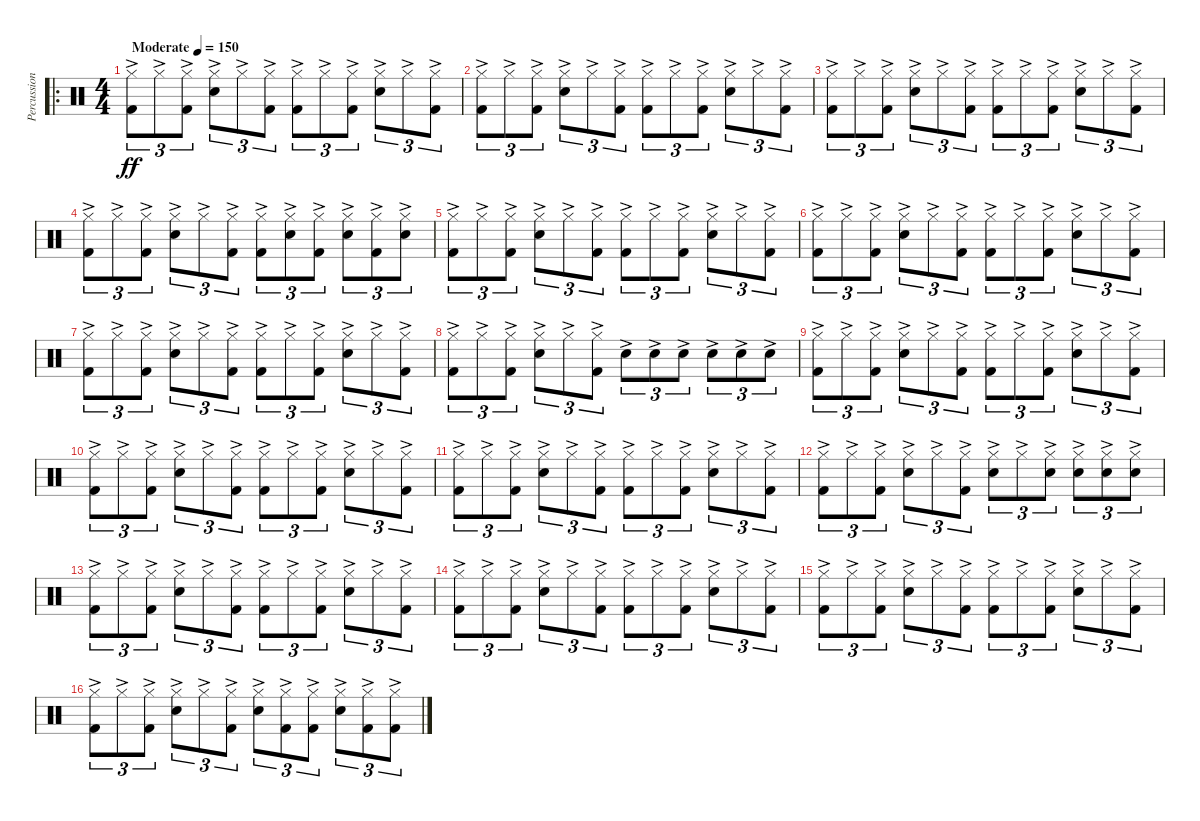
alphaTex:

\track ("Percussion" "Percussion") {instrument percussion}
\staff {score}
\articulation defaults
\ro
\ts (4 4)
\tempo (150 "Moderate")
\clef neutral
\ks c
("Hi-Hat (closed)"{ac} "Kick (hit) 2"{ac}).8{tu (3 2) dy ff} "Hi-Hat (closed)"{ac}.8{tu (3 2)} ("Hi-Hat (closed)"{ac} "Kick (hit) 2"{ac}).8{tu (3 2)} ("Hi-Hat (closed)"{ac} "Snare (hit) 2"{ac}).8{tu (3 2)} "Hi-Hat (closed)"{ac}.8{tu (3 2)} ("Hi-Hat (closed)"{ac} "Kick (hit) 2"{ac}).8{tu (3 2)} ("Hi-Hat (closed)"{ac} "Kick (hit) 2"{ac}).8{tu (3 2)} "Hi-Hat (closed)"{ac}.8{tu (3 2)} ("Hi-Hat (closed)"{ac} "Kick (hit) 2"{ac}).8{tu (3 2)} ("Hi-Hat (closed)"{ac} "Snare (hit) 2"{ac}).8{tu (3 2)} "Hi-Hat (closed)"{ac}.8{tu (3 2)} ("Hi-Hat (closed)"{ac} "Kick (hit) 2"{ac}).8{tu (3 2)} |
("Hi-Hat (closed)"{ac} "Kick (hit) 2"{ac}).8{tu (3 2)} "Hi-Hat (closed)"{ac}.8{tu (3 2)} ("Hi-Hat (closed)"{ac} "Kick (hit) 2"{ac}).8{tu (3 2)} ("Hi-Hat (closed)"{ac} "Snare (hit) 2"{ac}).8{tu (3 2)} "Hi-Hat (closed)"{ac}.8{tu (3 2)} ("Hi-Hat (closed)"{ac} "Kick (hit) 2"{ac}).8{tu (3 2)} ("Hi-Hat (closed)"{ac} "Kick (hit) 2"{ac}).8{tu (3 2)} "Hi-Hat (closed)"{ac}.8{tu (3 2)} ("Hi-Hat (closed)"{ac} "Kick (hit) 2"{ac}).8{tu (3 2)} ("Hi-Hat (closed)"{ac} "Snare (hit) 2"{ac}).8{tu (3 2)} "Hi-Hat (closed)"{ac}.8{tu (3 2)} ("Hi-Hat (closed)"{ac} "Kick (hit) 2"{ac}).8{tu (3 2)} |
("Hi-Hat (closed)"{ac} "Kick (hit) 2"{ac}).8{tu (3 2)} "Hi-Hat (closed)"{ac}.8{tu (3 2)} ("Hi-Hat (closed)"{ac} "Kick (hit) 2"{ac}).8{tu (3 2)} ("Hi-Hat (closed)"{ac} "Snare (hit) 2"{ac}).8{tu (3 2)} "Hi-Hat (closed)"{ac}.8{tu (3 2)} ("Hi-Hat (closed)"{ac} "Kick (hit) 2"{ac}).8{tu (3 2)} ("Hi-Hat (closed)"{ac} "Kick (hit) 2"{ac}).8{tu (3 2)} "Hi-Hat (closed)"{ac}.8{tu (3 2)} ("Hi-Hat (closed)"{ac} "Kick (hit) 2"{ac}).8{tu (3 2)} ("Hi-Hat (closed)"{ac} "Snare (hit) 2"{ac}).8{tu (3 2)} "Hi-Hat (closed)"{ac}.8{tu (3 2)} ("Hi-Hat (closed)"{ac} "Kick (hit) 2"{ac}).8{tu (3 2)} |
("Hi-Hat (closed)"{ac} "Kick (hit) 2"{ac}).8{tu (3 2)} "Hi-Hat (closed)"{ac}.8{tu (3 2)} ("Hi-Hat (closed)"{ac} "Kick (hit) 2"{ac}).8{tu (3 2)} ("Hi-Hat (closed)"{ac} "Snare (hit) 2"{ac}).8{tu (3 2)} "Hi-Hat (closed)"{ac}.8{tu (3 2)} ("Hi-Hat (closed)"{ac} "Kick (hit) 2"{ac}).8{tu (3 2)} ("Hi-Hat (closed)"{ac} "Kick (hit) 2"{ac}).8{tu (3 2)} ("Hi-Hat (closed)"{ac} "Snare (hit) 2"{ac}).8{tu (3 2)} ("Hi-Hat (closed)"{ac} "Kick (hit) 2"{ac}).8{tu (3 2)} ("Hi-Hat (closed)"{ac} "Snare (hit) 2"{ac}).8{tu (3 2)} ("Hi-Hat (closed)"{ac} "Kick (hit) 2"{ac}).8{tu (3 2)} ("Hi-Hat (closed)"{ac} "Snare (hit) 2"{ac}).8{tu (3 2)} |
("Hi-Hat (closed)"{ac} "Kick (hit) 2"{ac}).8{tu (3 2)} "Hi-Hat (closed)"{ac}.8{tu (3 2)} ("Hi-Hat (closed)"{ac} "Kick (hit) 2"{ac}).8{tu (3 2)} ("Hi-Hat (closed)"{ac} "Snare (hit) 2"{ac}).8{tu (3 2)} "Hi-Hat (closed)"{ac}.8{tu (3 2)} ("Hi-Hat (closed)"{ac} "Kick (hit) 2"{ac}).8{tu (3 2)} ("Hi-Hat (closed)"{ac} "Kick (hit) 2"{ac}).8{tu (3 2)} "Hi-Hat (closed)"{ac}.8{tu (3 2)} ("Hi-Hat (closed)"{ac} "Kick (hit) 2"{ac}).8{tu (3 2)} ("Hi-Hat (closed)"{ac} "Snare (hit) 2"{ac}).8{tu (3 2)} "Hi-Hat (closed)"{ac}.8{tu (3 2)} ("Hi-Hat (closed)"{ac} "Kick (hit) 2"{ac}).8{tu (3 2)} |
("Hi-Hat (closed)"{ac} "Kick (hit) 2"{ac}).8{tu (3 2)} "Hi-Hat (closed)"{ac}.8{tu (3 2)} ("Hi-Hat (closed)"{ac} "Kick (hit) 2"{ac}).8{tu (3 2)} ("Hi-Hat (closed)"{ac} "Snare (hit) 2"{ac}).8{tu (3 2)} "Hi-Hat (closed)"{ac}.8{tu (3 2)} ("Hi-Hat (closed)"{ac} "Kick (hit) 2"{ac}).8{tu (3 2)} ("Hi-Hat (closed)"{ac} "Kick (hit) 2"{ac}).8{tu (3 2)} "Hi-Hat (closed)"{ac}.8{tu (3 2)} ("Hi-Hat (closed)"{ac} "Kick (hit) 2"{ac}).8{tu (3 2)} ("Hi-Hat (closed)"{ac} "Snare (hit) 2"{ac}).8{tu (3 2)} "Hi-Hat (closed)"{ac}.8{tu (3 2)} ("Hi-Hat (closed)"{ac} "Kick (hit) 2"{ac}).8{tu (3 2)} |
("Hi-Hat (closed)"{ac} "Kick (hit) 2"{ac}).8{tu (3 2)} "Hi-Hat (closed)"{ac}.8{tu (3 2)} ("Hi-Hat (closed)"{ac} "Kick (hit) 2"{ac}).8{tu (3 2)} ("Hi-Hat (closed)"{ac} "Snare (hit) 2"{ac}).8{tu (3 2)} "Hi-Hat (closed)"{ac}.8{tu (3 2)} ("Hi-Hat (closed)"{ac} "Kick (hit) 2"{ac}).8{tu (3 2)} ("Hi-Hat (closed)"{ac} "Kick (hit) 2"{ac}).8{tu (3 2)} "Hi-Hat (closed)"{ac}.8{tu (3 2)} ("Hi-Hat (closed)"{ac} "Kick (hit) 2"{ac}).8{tu (3 2)} ("Hi-Hat (closed)"{ac} "Snare (hit) 2"{ac}).8{tu (3 2)} "Hi-Hat (closed)"{ac}.8{tu (3 2)} ("Hi-Hat (closed)"{ac} "Kick (hit) 2"{ac}).8{tu (3 2)} |
("Hi-Hat (closed)"{ac} "Kick (hit) 2"{ac}).8{tu (3 2)} "Hi-Hat (closed)"{ac}.8{tu (3 2)} ("Hi-Hat (closed)"{ac} "Kick (hit) 2"{ac}).8{tu (3 2)} ("Hi-Hat (closed)"{ac} "Snare (hit) 2"{ac}).8{tu (3 2)} "Hi-Hat (closed)"{ac}.8{tu (3 2)} ("Hi-Hat (closed)"{ac} "Kick (hit) 2"{ac}).8{tu (3 2)} "Snare (hit) 2"{ac}.8{tu (3 2)} "Snare (hit) 2"{ac}.8{tu (3 2)} "Snare (hit) 2"{ac}.8{tu (3 2)} "Snare (hit) 2"{ac}.8{tu (3 2)} "Snare (hit) 2"{ac}.8{tu (3 2)} "Snare (hit) 2"{ac}.8{tu (3 2)} |
("Hi-Hat (closed)"{ac} "Kick (hit) 2"{ac}).8{tu (3 2)} "Hi-Hat (closed)"{ac}.8{tu (3 2)} ("Hi-Hat (closed)"{ac} "Kick (hit) 2"{ac}).8{tu (3 2)} ("Hi-Hat (closed)"{ac} "Snare (hit) 2"{ac}).8{tu (3 2)} "Hi-Hat (closed)"{ac}.8{tu (3 2)} ("Hi-Hat (closed)"{ac} "Kick (hit) 2"{ac}).8{tu (3 2)} ("Hi-Hat (closed)"{ac} "Kick (hit) 2"{ac}).8{tu (3 2)} "Hi-Hat (closed)"{ac}.8{tu (3 2)} ("Hi-Hat (closed)"{ac} "Kick (hit) 2"{ac}).8{tu (3 2)} ("Hi-Hat (closed)"{ac} "Snare (hit) 2"{ac}).8{tu (3 2)} "Hi-Hat (closed)"{ac}.8{tu (3 2)} ("Hi-Hat (closed)"{ac} "Kick (hit) 2"{ac}).8{tu (3 2)} |
("Hi-Hat (closed)"{ac} "Kick (hit) 2"{ac}).8{tu (3 2)} "Hi-Hat (closed)"{ac}.8{tu (3 2)} ("Hi-Hat (closed)"{ac} "Kick (hit) 2"{ac}).8{tu (3 2)} ("Hi-Hat (closed)"{ac} "Snare (hit) 2"{ac}).8{tu (3 2)} "Hi-Hat (closed)"{ac}.8{tu (3 2)} ("Hi-Hat (closed)"{ac} "Kick (hit) 2"{ac}).8{tu (3 2)} ("Hi-Hat (closed)"{ac} "Kick (hit) 2"{ac}).8{tu (3 2)} "Hi-Hat (closed)"{ac}.8{tu (3 2)} ("Hi-Hat (closed)"{ac} "Kick (hit) 2"{ac}).8{tu (3 2)} ("Hi-Hat (closed)"{ac} "Snare (hit) 2"{ac}).8{tu (3 2)} "Hi-Hat (closed)"{ac}.8{tu (3 2)} ("Hi-Hat (closed)"{ac} "Kick (hit) 2"{ac}).8{tu (3 2)} |
("Hi-Hat (closed)"{ac} "Kick (hit) 2"{ac}).8{tu (3 2)} "Hi-Hat (closed)"{ac}.8{tu (3 2)} ("Hi-Hat (closed)"{ac} "Kick (hit) 2"{ac}).8{tu (3 2)} ("Hi-Hat (closed)"{ac} "Snare (hit) 2"{ac}).8{tu (3 2)} "Hi-Hat (closed)"{ac}.8{tu (3 2)} ("Hi-Hat (closed)"{ac} "Kick (hit) 2"{ac}).8{tu (3 2)} ("Hi-Hat (closed)"{ac} "Kick (hit) 2"{ac}).8{tu (3 2)} "Hi-Hat (closed)"{ac}.8{tu (3 2)} ("Hi-Hat (closed)"{ac} "Kick (hit) 2"{ac}).8{tu (3 2)} ("Hi-Hat (closed)"{ac} "Snare (hit) 2"{ac}).8{tu (3 2)} "Hi-Hat (closed)"{ac}.8{tu (3 2)} ("Hi-Hat (closed)"{ac} "Kick (hit) 2"{ac}).8{tu (3 2)} |
("Hi-Hat (closed)"{ac} "Kick (hit) 2"{ac}).8{tu (3 2)} "Hi-Hat (closed)"{ac}.8{tu (3 2)} ("Hi-Hat (closed)"{ac} "Kick (hit) 2"{ac}).8{tu (3 2)} ("Hi-Hat (closed)"{ac} "Snare (hit) 2"{ac}).8{tu (3 2)} "Hi-Hat (closed)"{ac}.8{tu (3 2)} ("Hi-Hat (closed)"{ac} "Kick (hit) 2"{ac}).8{tu (3 2)} ("Hi-Hat (closed)"{ac} "Snare (hit) 2"{ac}).8{tu (3 2)} "Hi-Hat (closed)"{ac}.8{tu (3 2)} ("Hi-Hat (closed)"{ac} "Snare (hit) 2"{ac}).8{tu (3 2)} ("Hi-Hat (closed)"{ac} "Snare (hit) 2"{ac}).8{tu (3 2)} ("Hi-Hat (closed)"{ac} "Snare (hit) 2"{ac}).8{tu (3 2)} ("Hi-Hat (closed)"{ac} "Snare (hit) 2"{ac}).8{tu (3 2)} |
("Hi-Hat (closed)"{ac} "Kick (hit) 2"{ac}).8{tu (3 2)} "Hi-Hat (closed)"{ac}.8{tu (3 2)} ("Hi-Hat (closed)"{ac} "Kick (hit) 2"{ac}).8{tu (3 2)} ("Hi-Hat (closed)"{ac} "Snare (hit) 2"{ac}).8{tu (3 2)} "Hi-Hat (closed)"{ac}.8{tu (3 2)} ("Hi-Hat (closed)"{ac} "Kick (hit) 2"{ac}).8{tu (3 2)} ("Hi-Hat (closed)"{ac} "Kick (hit) 2"{ac}).8{tu (3 2)} "Hi-Hat (closed)"{ac}.8{tu (3 2)} ("Hi-Hat (closed)"{ac} "Kick (hit) 2"{ac}).8{tu (3 2)} ("Hi-Hat (closed)"{ac} "Snare (hit) 2"{ac}).8{tu (3 2)} "Hi-Hat (closed)"{ac}.8{tu (3 2)} ("Hi-Hat (closed)"{ac} "Kick (hit) 2"{ac}).8{tu (3 2)} |
("Hi-Hat (closed)"{ac} "Kick (hit) 2"{ac}).8{tu (3 2)} "Hi-Hat (closed)"{ac}.8{tu (3 2)} ("Hi-Hat (closed)"{ac} "Kick (hit) 2"{ac}).8{tu (3 2)} ("Hi-Hat (closed)"{ac} "Snare (hit) 2"{ac}).8{tu (3 2)} "Hi-Hat (closed)"{ac}.8{tu (3 2)} ("Hi-Hat (closed)"{ac} "Kick (hit) 2"{ac}).8{tu (3 2)} ("Hi-Hat (closed)"{ac} "Kick (hit) 2"{ac}).8{tu (3 2)} "Hi-Hat (closed)"{ac}.8{tu (3 2)} ("Hi-Hat (closed)"{ac} "Kick (hit) 2"{ac}).8{tu (3 2)} ("Hi-Hat (closed)"{ac} "Snare (hit) 2"{ac}).8{tu (3 2)} "Hi-Hat (closed)"{ac}.8{tu (3 2)} ("Hi-Hat (closed)"{ac} "Kick (hit) 2"{ac}).8{tu (3 2)} |
("Hi-Hat (closed)"{ac} "Kick (hit) 2"{ac}).8{tu (3 2)} "Hi-Hat (closed)"{ac}.8{tu (3 2)} ("Hi-Hat (closed)"{ac} "Kick (hit) 2"{ac}).8{tu (3 2)} ("Hi-Hat (closed)"{ac} "Snare (hit) 2"{ac}).8{tu (3 2)} "Hi-Hat (closed)"{ac}.8{tu (3 2)} ("Hi-Hat (closed)"{ac} "Kick (hit) 2"{ac}).8{tu (3 2)} ("Hi-Hat (closed)"{ac} "Kick (hit) 2"{ac}).8{tu (3 2)} "Hi-Hat (closed)"{ac}.8{tu (3 2)} ("Hi-Hat (closed)"{ac} "Kick (hit) 2"{ac}).8{tu (3 2)} ("Hi-Hat (closed)"{ac} "Snare (hit) 2"{ac}).8{tu (3 2)} "Hi-Hat (closed)"{ac}.8{tu (3 2)} ("Hi-Hat (closed)"{ac} "Kick (hit) 2"{ac}).8{tu (3 2)} |
("Hi-Hat (closed)"{ac} "Kick (hit) 2"{ac}).8{tu (3 2)} "Hi-Hat (closed)"{ac}.8{tu (3 2)} ("Hi-Hat (closed)"{ac} "Kick (hit) 2"{ac}).8{tu (3 2)} ("Hi-Hat (closed)"{ac} "Snare (hit) 2"{ac}).8{tu (3 2)} "Hi-Hat (closed)"{ac}.8{tu (3 2)} ("Hi-Hat (closed)"{ac} "Kick (hit) 2"{ac}).8{tu (3 2)} ("Hi-Hat (closed)"{ac} "Snare (hit) 2"{ac}).8{tu (3 2)} ("Hi-Hat (closed)"{ac} "Kick (hit) 2"{ac}).8{tu (3 2)} ("Hi-Hat (closed)"{ac} "Kick (hit) 2"{ac}).8{tu (3 2)} ("Hi-Hat (closed)"{ac} "Snare (hit) 2"{ac}).8{tu (3 2)} ("Hi-Hat (closed)"{ac} "Kick (hit) 2"{ac}).8{tu (3 2)} ("Hi-Hat (closed)"{ac} "Kick (hit) 2"{ac}).8{tu (3 2)}
